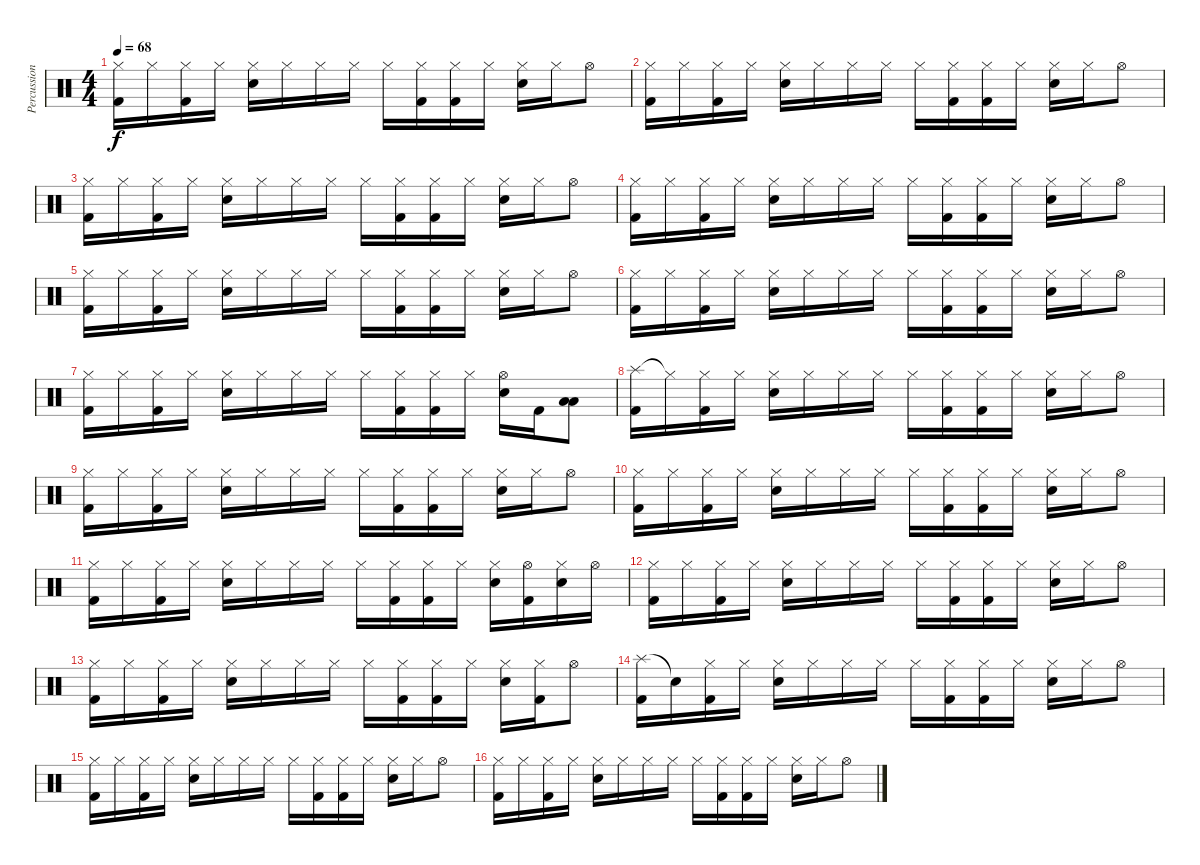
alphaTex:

\track ("Percussion" "Percussion") {instrument percussion}
\staff {score}
\articulation defaults
\ts (4 4)
\tempo 68
\clef neutral
\ks c
("Hi-Hat (closed)" "Kick (hit) 2").16{dy f} "Hi-Hat (closed)".16 ("Hi-Hat (closed)" "Kick (hit) 2").16 "Hi-Hat (closed)".16 ("Hi-Hat (closed)" "Electric Snare (hit)").16 "Hi-Hat (closed)".16 "Hi-Hat (closed)".16 "Hi-Hat (closed)".16 "Hi-Hat (closed)".16 ("Hi-Hat (closed)" "Kick (hit) 2").16 ("Hi-Hat (closed)" "Kick (hit) 2").16 "Hi-Hat (closed)".16 ("Hi-Hat (closed)" "Electric Snare (hit)").16 "Hi-Hat (closed)".16 "Hi-Hat (open)".8 |
("Hi-Hat (closed)" "Kick (hit) 2").16 "Hi-Hat (closed)".16 ("Hi-Hat (closed)" "Kick (hit) 2").16 "Hi-Hat (closed)".16 ("Hi-Hat (closed)" "Electric Snare (hit)").16 "Hi-Hat (closed)".16 "Hi-Hat (closed)".16 "Hi-Hat (closed)".16 "Hi-Hat (closed)".16 ("Hi-Hat (closed)" "Kick (hit) 2").16 ("Hi-Hat (closed)" "Kick (hit) 2").16 "Hi-Hat (closed)".16 ("Hi-Hat (closed)" "Electric Snare (hit)").16 "Hi-Hat (closed)".16 "Hi-Hat (open)".8 |
("Hi-Hat (closed)" "Kick (hit) 2").16 "Hi-Hat (closed)".16 ("Hi-Hat (closed)" "Kick (hit) 2").16 "Hi-Hat (closed)".16 ("Hi-Hat (closed)" "Electric Snare (hit)").16 "Hi-Hat (closed)".16 "Hi-Hat (closed)".16 "Hi-Hat (closed)".16 "Hi-Hat (closed)".16 ("Hi-Hat (closed)" "Kick (hit) 2").16 ("Hi-Hat (closed)" "Kick (hit) 2").16 "Hi-Hat (closed)".16 ("Hi-Hat (closed)" "Electric Snare (hit)").16 "Hi-Hat (closed)".16 "Hi-Hat (open)".8 |
("Hi-Hat (closed)" "Kick (hit) 2").16 "Hi-Hat (closed)".16 ("Hi-Hat (closed)" "Kick (hit) 2").16 "Hi-Hat (closed)".16 ("Hi-Hat (closed)" "Electric Snare (hit)").16 "Hi-Hat (closed)".16 "Hi-Hat (closed)".16 "Hi-Hat (closed)".16 "Hi-Hat (closed)".16 ("Hi-Hat (closed)" "Kick (hit) 2").16 ("Hi-Hat (closed)" "Kick (hit) 2").16 "Hi-Hat (closed)".16 ("Hi-Hat (closed)" "Electric Snare (hit)").16 "Hi-Hat (closed)".16 "Hi-Hat (open)".8 |
("Hi-Hat (closed)" "Kick (hit) 2").16 "Hi-Hat (closed)".16 ("Hi-Hat (closed)" "Kick (hit) 2").16 "Hi-Hat (closed)".16 ("Hi-Hat (closed)" "Electric Snare (hit)").16 "Hi-Hat (closed)".16 "Hi-Hat (closed)".16 "Hi-Hat (closed)".16 "Hi-Hat (closed)".16 ("Hi-Hat (closed)" "Kick (hit) 2").16 ("Hi-Hat (closed)" "Kick (hit) 2").16 "Hi-Hat (closed)".16 ("Hi-Hat (closed)" "Electric Snare (hit)").16 "Hi-Hat (closed)".16 "Hi-Hat (open)".8 |
("Hi-Hat (closed)" "Kick (hit) 2").16 "Hi-Hat (closed)".16 ("Hi-Hat (closed)" "Kick (hit) 2").16 "Hi-Hat (closed)".16 ("Hi-Hat (closed)" "Electric Snare (hit)").16 "Hi-Hat (closed)".16 "Hi-Hat (closed)".16 "Hi-Hat (closed)".16 "Hi-Hat (closed)".16 ("Hi-Hat (closed)" "Kick (hit) 2").16 ("Hi-Hat (closed)" "Kick (hit) 2").16 "Hi-Hat (closed)".16 ("Hi-Hat (closed)" "Electric Snare (hit)").16 "Hi-Hat (closed)".16 "Hi-Hat (open)".8 |
("Hi-Hat (closed)" "Kick (hit) 2").16 "Hi-Hat (closed)".16 ("Hi-Hat (closed)" "Kick (hit) 2").16 "Hi-Hat (closed)".16 ("Hi-Hat (closed)" "Electric Snare (hit)").16 "Hi-Hat (closed)".16 "Hi-Hat (closed)".16 "Hi-Hat (closed)".16 "Hi-Hat (closed)".16 ("Hi-Hat (closed)" "Kick (hit) 2").16 ("Hi-Hat (closed)" "Kick (hit) 2").16 "Hi-Hat (closed)".16 ("Hi-Hat (open)" "Electric Snare (hit)").16 "Kick (hit) 2".16 ("Low Tom (hit)" "Low Floor Tom (hit)").8 |
("Splash (hit)" "Kick (hit) 2").16 "Hi-Hat (closed)"{t}.16 ("Hi-Hat (closed)" "Kick (hit) 2").16 "Hi-Hat (closed)".16 ("Hi-Hat (closed)" "Electric Snare (hit)").16 "Hi-Hat (closed)".16 "Hi-Hat (closed)".16 "Hi-Hat (closed)".16 "Hi-Hat (closed)".16 ("Hi-Hat (closed)" "Kick (hit) 2").16 ("Hi-Hat (closed)" "Kick (hit) 2").16 "Hi-Hat (closed)".16 ("Hi-Hat (closed)" "Electric Snare (hit)").16 "Hi-Hat (closed)".16 "Hi-Hat (open)".8 |
("Hi-Hat (closed)" "Kick (hit) 2").16 "Hi-Hat (closed)".16 ("Hi-Hat (closed)" "Kick (hit) 2").16 "Hi-Hat (closed)".16 ("Hi-Hat (closed)" "Electric Snare (hit)").16 "Hi-Hat (closed)".16 "Hi-Hat (closed)".16 "Hi-Hat (closed)".16 "Hi-Hat (closed)".16 ("Hi-Hat (closed)" "Kick (hit) 2").16 ("Hi-Hat (closed)" "Kick (hit) 2").16 "Hi-Hat (closed)".16 ("Hi-Hat (closed)" "Electric Snare (hit)").16 "Hi-Hat (closed)".16 "Hi-Hat (open)".8 |
("Hi-Hat (closed)" "Kick (hit) 2").16 "Hi-Hat (closed)".16 ("Hi-Hat (closed)" "Kick (hit) 2").16 "Hi-Hat (closed)".16 ("Hi-Hat (closed)" "Electric Snare (hit)").16 "Hi-Hat (closed)".16 "Hi-Hat (closed)".16 "Hi-Hat (closed)".16 "Hi-Hat (closed)".16 ("Hi-Hat (closed)" "Kick (hit) 2").16 ("Hi-Hat (closed)" "Kick (hit) 2").16 "Hi-Hat (closed)".16 ("Hi-Hat (closed)" "Electric Snare (hit)").16 "Hi-Hat (closed)".16 "Hi-Hat (open)".8 |
("Hi-Hat (closed)" "Kick (hit) 2").16 "Hi-Hat (closed)".16 ("Hi-Hat (closed)" "Kick (hit) 2").16 "Hi-Hat (closed)".16 ("Hi-Hat (closed)" "Electric Snare (hit)").16 "Hi-Hat (closed)".16 "Hi-Hat (closed)".16 "Hi-Hat (closed)".16 "Hi-Hat (closed)".16 ("Hi-Hat (closed)" "Kick (hit) 2").16 ("Hi-Hat (closed)" "Kick (hit) 2").16 "Hi-Hat (closed)".16 ("Hi-Hat (closed)" "Electric Snare (hit)").16 ("Hi-Hat (open)" "Kick (hit) 2").16 ("Hi-Hat (closed)" "Electric Snare (hit)").16 "Hi-Hat (open)".16 |
("Hi-Hat (closed)" "Kick (hit) 2").16 "Hi-Hat (closed)".16 ("Hi-Hat (closed)" "Kick (hit) 2").16 "Hi-Hat (closed)".16 ("Hi-Hat (closed)" "Electric Snare (hit)").16 "Hi-Hat (closed)".16 "Hi-Hat (closed)".16 "Hi-Hat (closed)".16 "Hi-Hat (closed)".16 ("Hi-Hat (closed)" "Kick (hit) 2").16 ("Hi-Hat (closed)" "Kick (hit) 2").16 "Hi-Hat (closed)".16 ("Hi-Hat (closed)" "Electric Snare (hit)").16 "Hi-Hat (closed)".16 "Hi-Hat (open)".8 |
("Hi-Hat (closed)" "Kick (hit) 2").16 "Hi-Hat (closed)".16 ("Hi-Hat (closed)" "Kick (hit) 2").16 "Hi-Hat (closed)".16 ("Hi-Hat (closed)" "Electric Snare (hit)").16 "Hi-Hat (closed)".16 "Hi-Hat (closed)".16 "Hi-Hat (closed)".16 "Hi-Hat (closed)".16 ("Hi-Hat (closed)" "Kick (hit) 2").16 ("Hi-Hat (closed)" "Kick (hit) 2").16 "Hi-Hat (closed)".16 ("Hi-Hat (closed)" "Electric Snare (hit)").16 ("Hi-Hat (closed)" "Kick (hit) 2").16 "Hi-Hat (open)".8 |
("Splash (hit)" "Kick (hit) 2").16 "Snare (hit)"{t}.16 ("Hi-Hat (closed)" "Kick (hit) 2").16 "Hi-Hat (closed)".16 ("Hi-Hat (closed)" "Electric Snare (hit)").16 "Hi-Hat (closed)".16 "Hi-Hat (closed)".16 "Hi-Hat (closed)".16 "Hi-Hat (closed)".16 ("Hi-Hat (closed)" "Kick (hit) 2").16 ("Hi-Hat (closed)" "Kick (hit) 2").16 "Hi-Hat (closed)".16 ("Hi-Hat (closed)" "Electric Snare (hit)").16 "Hi-Hat (closed)".16 "Hi-Hat (open)".8 |
("Hi-Hat (closed)" "Kick (hit) 2").16 "Hi-Hat (closed)".16 ("Hi-Hat (closed)" "Kick (hit) 2").16 "Hi-Hat (closed)".16 ("Hi-Hat (closed)" "Electric Snare (hit)").16 "Hi-Hat (closed)".16 "Hi-Hat (closed)".16 "Hi-Hat (closed)".16 "Hi-Hat (closed)".16 ("Hi-Hat (closed)" "Kick (hit) 2").16 ("Hi-Hat (closed)" "Kick (hit) 2").16 "Hi-Hat (closed)".16 ("Hi-Hat (closed)" "Electric Snare (hit)").16 "Hi-Hat (closed)".16 "Hi-Hat (open)".8 |
("Hi-Hat (closed)" "Kick (hit) 2").16 "Hi-Hat (closed)".16 ("Hi-Hat (closed)" "Kick (hit) 2").16 "Hi-Hat (closed)".16 ("Hi-Hat (closed)" "Electric Snare (hit)").16 "Hi-Hat (closed)".16 "Hi-Hat (closed)".16 "Hi-Hat (closed)".16 "Hi-Hat (closed)".16 ("Hi-Hat (closed)" "Kick (hit) 2").16 ("Hi-Hat (closed)" "Kick (hit) 2").16 "Hi-Hat (closed)".16 ("Hi-Hat (closed)" "Electric Snare (hit)").16 "Hi-Hat (closed)".16 "Hi-Hat (open)".8
